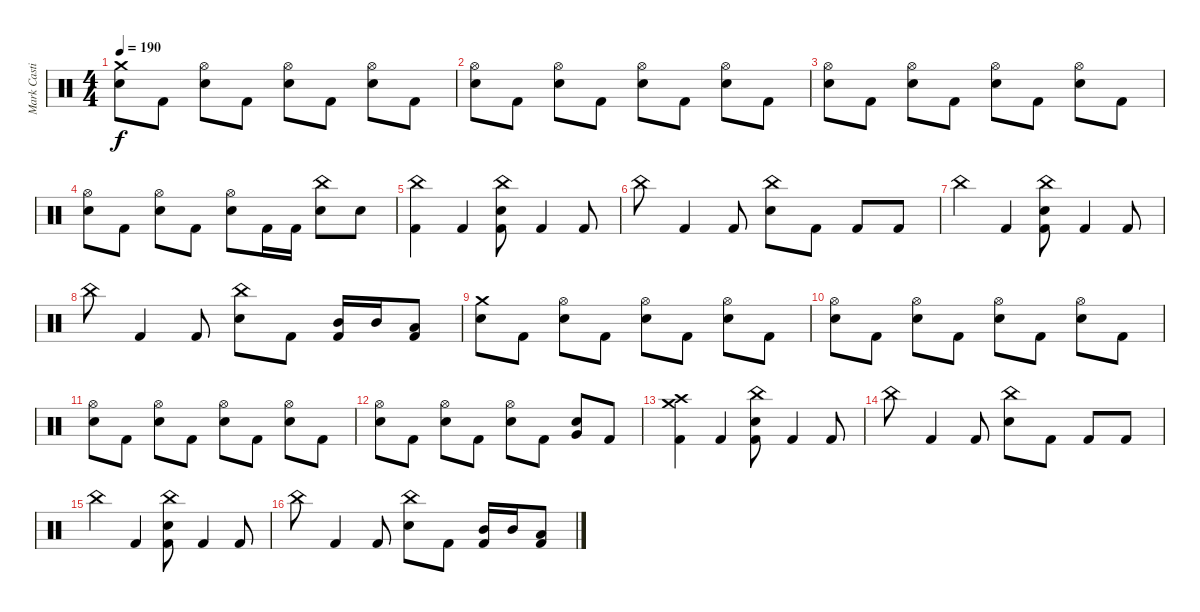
\track ("Mark Castillo" "Mark Casti") {instrument percussion}
\staff {score}
\articulation defaults
\ts (4 4)
\tempo 190
\clef neutral
\ks c
("Crash medium (hit)" "Electric Snare (hit)").8{dy f} "Kick (hit) 2".8 ("Hi-Hat (open)" "Electric Snare (hit)").8 "Kick (hit) 2".8 ("Hi-Hat (open)" "Electric Snare (hit)").8 "Kick (hit) 2".8 ("Hi-Hat (open)" "Electric Snare (hit)").8 "Kick (hit) 2".8 |
("Hi-Hat (open)" "Electric Snare (hit)").8 "Kick (hit) 2".8 ("Hi-Hat (open)" "Electric Snare (hit)").8 "Kick (hit) 2".8 ("Hi-Hat (open)" "Electric Snare (hit)").8 "Kick (hit) 2".8 ("Hi-Hat (open)" "Electric Snare (hit)").8 "Kick (hit) 2".8 |
("Hi-Hat (open)" "Electric Snare (hit)").8 "Kick (hit) 2".8 ("Hi-Hat (open)" "Electric Snare (hit)").8 "Kick (hit) 2".8 ("Hi-Hat (open)" "Electric Snare (hit)").8 "Kick (hit) 2".8 ("Hi-Hat (open)" "Electric Snare (hit)").8 "Kick (hit) 2".8 |
("Hi-Hat (open)" "Electric Snare (hit)").8 "Kick (hit) 2".8 ("Hi-Hat (open)" "Electric Snare (hit)").8 "Kick (hit) 2".8 ("Hi-Hat (open)" "Electric Snare (hit)").8 "Kick (hit) 2".16 "Kick (hit) 2".16 ("China (hit)" "Electric Snare (hit)").8 "Electric Snare (hit)".8 |
("China (hit)" "Kick (hit) 2").4 "Kick (hit) 2".4 ("China (hit)" "Electric Snare (hit)" "Kick (hit) 2").8 "Kick (hit) 2".4 "Kick (hit) 2".8 |
"China (hit)".8 "Kick (hit) 2".4 "Kick (hit) 2".8 ("China (hit)" "Electric Snare (hit)").8 "Kick (hit) 2".8 "Kick (hit) 2".8 "Kick (hit) 2".8 |
"China (hit)".4 "Kick (hit) 2".4 ("China (hit)" "Electric Snare (hit)" "Kick (hit) 2").8 "Kick (hit) 2".4 "Kick (hit) 2".8 |
"China (hit)".8 "Kick (hit) 2".4 "Kick (hit) 2".8 ("China (hit)" "Electric Snare (hit)").8 "Kick (hit) 2".8 ("Mid Tom (hit)" "Kick (hit) 2").16 "Mid Tom (hit)".16 ("Low Tom (hit)" "Kick (hit) 2").8 |
("Crash medium (hit)" "Electric Snare (hit)").8 "Kick (hit) 2".8 ("Hi-Hat (open)" "Electric Snare (hit)").8 "Kick (hit) 2".8 ("Hi-Hat (open)" "Electric Snare (hit)").8 "Kick (hit) 2".8 ("Hi-Hat (open)" "Electric Snare (hit)").8 "Kick (hit) 2".8 |
("Hi-Hat (open)" "Electric Snare (hit)").8 "Kick (hit) 2".8 ("Hi-Hat (open)" "Electric Snare (hit)").8 "Kick (hit) 2".8 ("Hi-Hat (open)" "Electric Snare (hit)").8 "Kick (hit) 2".8 ("Hi-Hat (open)" "Electric Snare (hit)").8 "Kick (hit) 2".8 |
("Hi-Hat (open)" "Electric Snare (hit)").8 "Kick (hit) 2".8 ("Hi-Hat (open)" "Electric Snare (hit)").8 "Kick (hit) 2".8 ("Hi-Hat (open)" "Electric Snare (hit)").8 "Kick (hit) 2".8 ("Hi-Hat (open)" "Electric Snare (hit)").8 "Kick (hit) 2".8 |
("Hi-Hat (open)" "Electric Snare (hit)").8 "Kick (hit) 2".8 ("Hi-Hat (open)" "Electric Snare (hit)").8 "Kick (hit) 2".8 ("Hi-Hat (open)" "Electric Snare (hit)").8 "Kick (hit) 2".8 ("Very Low Tom (hit)" "Electric Snare (hit)").8 "Kick (hit) 2".8 |
("Crash high (hit)" "Crash medium (hit)" "Kick (hit) 2").4 "Kick (hit) 2".4 ("China (hit)" "Electric Snare (hit)" "Kick (hit) 2").8 "Kick (hit) 2".4 "Kick (hit) 2".8 |
"China (hit)".8 "Kick (hit) 2".4 "Kick (hit) 2".8 ("China (hit)" "Electric Snare (hit)").8 "Kick (hit) 2".8 "Kick (hit) 2".8 "Kick (hit) 2".8 |
"China (hit)".4 "Kick (hit) 2".4 ("China (hit)" "Electric Snare (hit)" "Kick (hit) 2").8 "Kick (hit) 2".4 "Kick (hit) 2".8 |
"China (hit)".8 "Kick (hit) 2".4 "Kick (hit) 2".8 ("China (hit)" "Electric Snare (hit)").8 "Kick (hit) 2".8 ("Mid Tom (hit)" "Kick (hit) 2").16 "Mid Tom (hit)".16 ("Low Tom (hit)" "Kick (hit) 2").8
